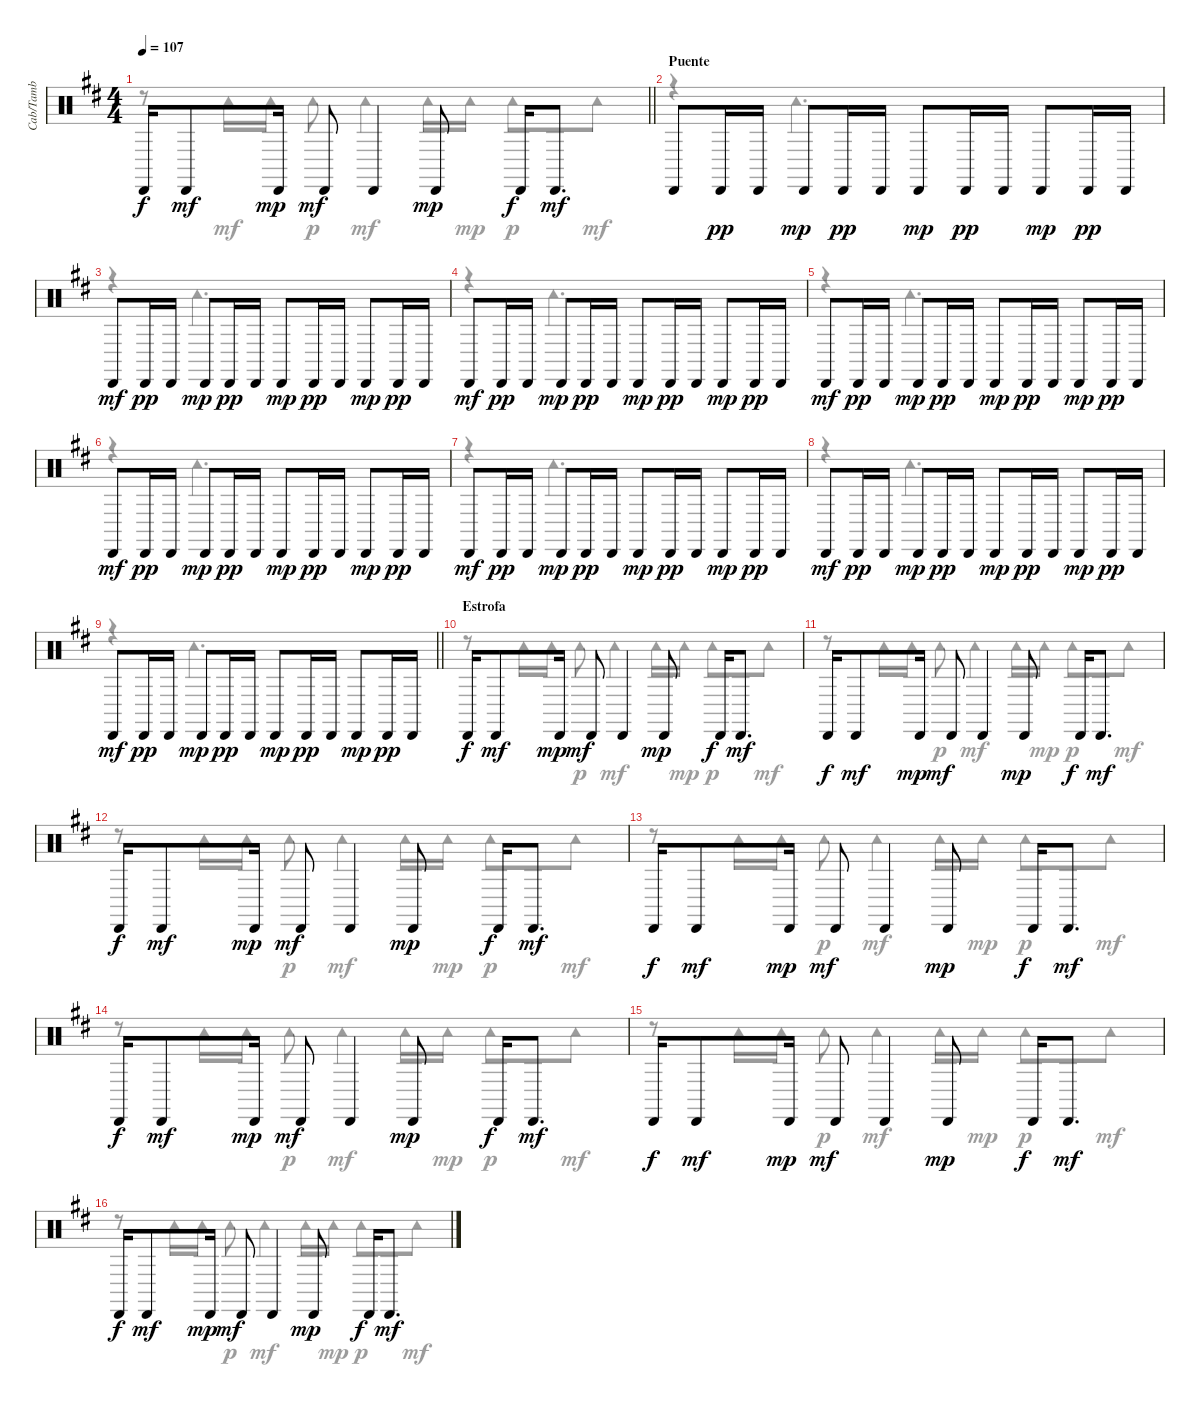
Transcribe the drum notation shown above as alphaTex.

\track ("Cab/Tamb" "Cab/Tamb") {instrument percussion}
\staff {score}
\articulation defaults
\voice
\ts (4 4)
\tempo 107
\clef neutral
\barLineRight lightlight
\ks d "Cabasa (hit)".16{dy f} "Cabasa (hit)".8{dy mf} "Cabasa (hit)".16{dy mp} "Cabasa (hit)".8{dy mf} "Cabasa (hit)".4 "Cabasa (hit)".8{dy mp} "Cabasa (hit)".16{dy f} "Cabasa (hit)".8{d dy mf}
|
\section ("" "Puente")
"Cabasa (hit)".8 "Cabasa (hit)".16{dy pp} "Cabasa (hit)".16 "Cabasa (hit)".8{dy mp} "Cabasa (hit)".16{dy pp} "Cabasa (hit)".16 "Cabasa (hit)".8{dy mp} "Cabasa (hit)".16{dy pp} "Cabasa (hit)".16 "Cabasa (hit)".8{dy mp} "Cabasa (hit)".16{dy pp} "Cabasa (hit)".16 |
"Cabasa (hit)".8{dy mf} "Cabasa (hit)".16{dy pp} "Cabasa (hit)".16 "Cabasa (hit)".8{dy mp} "Cabasa (hit)".16{dy pp} "Cabasa (hit)".16 "Cabasa (hit)".8{dy mp} "Cabasa (hit)".16{dy pp} "Cabasa (hit)".16 "Cabasa (hit)".8{dy mp} "Cabasa (hit)".16{dy pp} "Cabasa (hit)".16 |
"Cabasa (hit)".8{dy mf} "Cabasa (hit)".16{dy pp} "Cabasa (hit)".16 "Cabasa (hit)".8{dy mp} "Cabasa (hit)".16{dy pp} "Cabasa (hit)".16 "Cabasa (hit)".8{dy mp} "Cabasa (hit)".16{dy pp} "Cabasa (hit)".16 "Cabasa (hit)".8{dy mp} "Cabasa (hit)".16{dy pp} "Cabasa (hit)".16 |
"Cabasa (hit)".8{dy mf} "Cabasa (hit)".16{dy pp} "Cabasa (hit)".16 "Cabasa (hit)".8{dy mp} "Cabasa (hit)".16{dy pp} "Cabasa (hit)".16 "Cabasa (hit)".8{dy mp} "Cabasa (hit)".16{dy pp} "Cabasa (hit)".16 "Cabasa (hit)".8{dy mp} "Cabasa (hit)".16{dy pp} "Cabasa (hit)".16 |
"Cabasa (hit)".8{dy mf} "Cabasa (hit)".16{dy pp} "Cabasa (hit)".16 "Cabasa (hit)".8{dy mp} "Cabasa (hit)".16{dy pp} "Cabasa (hit)".16 "Cabasa (hit)".8{dy mp} "Cabasa (hit)".16{dy pp} "Cabasa (hit)".16 "Cabasa (hit)".8{dy mp} "Cabasa (hit)".16{dy pp} "Cabasa (hit)".16 |
"Cabasa (hit)".8{dy mf} "Cabasa (hit)".16{dy pp} "Cabasa (hit)".16 "Cabasa (hit)".8{dy mp} "Cabasa (hit)".16{dy pp} "Cabasa (hit)".16 "Cabasa (hit)".8{dy mp} "Cabasa (hit)".16{dy pp} "Cabasa (hit)".16 "Cabasa (hit)".8{dy mp} "Cabasa (hit)".16{dy pp} "Cabasa (hit)".16 |
"Cabasa (hit)".8{dy mf} "Cabasa (hit)".16{dy pp} "Cabasa (hit)".16 "Cabasa (hit)".8{dy mp} "Cabasa (hit)".16{dy pp} "Cabasa (hit)".16 "Cabasa (hit)".8{dy mp} "Cabasa (hit)".16{dy pp} "Cabasa (hit)".16 "Cabasa (hit)".8{dy mp} "Cabasa (hit)".16{dy pp} "Cabasa (hit)".16 |
\barLineRight lightlight "Cabasa (hit)".8{dy mf} "Cabasa (hit)".16{dy pp} "Cabasa (hit)".16 "Cabasa (hit)".8{dy mp} "Cabasa (hit)".16{dy pp} "Cabasa (hit)".16 "Cabasa (hit)".8{dy mp} "Cabasa (hit)".16{dy pp} "Cabasa (hit)".16 "Cabasa (hit)".8{dy mp} "Cabasa (hit)".16{dy pp} "Cabasa (hit)".16
|
\section ("" "Estrofa")
"Cabasa (hit)".16{dy f} "Cabasa (hit)".8{dy mf} "Cabasa (hit)".16{dy mp} "Cabasa (hit)".8{dy mf} "Cabasa (hit)".4 "Cabasa (hit)".8{dy mp} "Cabasa (hit)".16{dy f} "Cabasa (hit)".8{d dy mf} |
"Cabasa (hit)".16{dy f} "Cabasa (hit)".8{dy mf} "Cabasa (hit)".16{dy mp} "Cabasa (hit)".8{dy mf} "Cabasa (hit)".4 "Cabasa (hit)".8{dy mp} "Cabasa (hit)".16{dy f} "Cabasa (hit)".8{d dy mf} |
"Cabasa (hit)".16{dy f} "Cabasa (hit)".8{dy mf} "Cabasa (hit)".16{dy mp} "Cabasa (hit)".8{dy mf} "Cabasa (hit)".4 "Cabasa (hit)".8{dy mp} "Cabasa (hit)".16{dy f} "Cabasa (hit)".8{d dy mf} |
"Cabasa (hit)".16{dy f} "Cabasa (hit)".8{dy mf} "Cabasa (hit)".16{dy mp} "Cabasa (hit)".8{dy mf} "Cabasa (hit)".4 "Cabasa (hit)".8{dy mp} "Cabasa (hit)".16{dy f} "Cabasa (hit)".8{d dy mf} |
"Cabasa (hit)".16{dy f} "Cabasa (hit)".8{dy mf} "Cabasa (hit)".16{dy mp} "Cabasa (hit)".8{dy mf} "Cabasa (hit)".4 "Cabasa (hit)".8{dy mp} "Cabasa (hit)".16{dy f} "Cabasa (hit)".8{d dy mf} |
"Cabasa (hit)".16{dy f} "Cabasa (hit)".8{dy mf} "Cabasa (hit)".16{dy mp} "Cabasa (hit)".8{dy mf} "Cabasa (hit)".4 "Cabasa (hit)".8{dy mp} "Cabasa (hit)".16{dy f} "Cabasa (hit)".8{d dy mf} |
"Cabasa (hit)".16{dy f} "Cabasa (hit)".8{dy mf} "Cabasa (hit)".16{dy mp} "Cabasa (hit)".8{dy mf} "Cabasa (hit)".4 "Cabasa (hit)".8{dy mp} "Cabasa (hit)".16{dy f} "Cabasa (hit)".8{d dy mf}
\voice
\clef neutral
\ottava regular
\simile none
\barLineRight lightlight
\ks d
r.8{dy mf} "Tambourine (hit)".16 "Tambourine (hit)".16{dy mp} "Tambourine (hit)".8{dy p} "Tambourine (hit)".4{dy mf} "Tambourine (hit)".16 "Tambourine (hit)".16{dy mp} "Tambourine (hit)".8{dy p} "Tambourine (hit)".8{dy mf} |
r.4 "Tambourine (hit)".2{d} |
r.4 "Tambourine (hit)".2{d} |
r.4 "Tambourine (hit)".2{d} |
r.4 "Tambourine (hit)".2{d} |
r.4 "Tambourine (hit)".2{d} |
r.4 "Tambourine (hit)".2{d} |
r.4 "Tambourine (hit)".2{d} |
\barLineRight lightlight
r.4 "Tambourine (hit)".2{d} |
r.8 "Tambourine (hit)".16 "Tambourine (hit)".16{dy mp} "Tambourine (hit)".8{dy p} "Tambourine (hit)".4{dy mf} "Tambourine (hit)".16 "Tambourine (hit)".16{dy mp} "Tambourine (hit)".8{dy p} "Tambourine (hit)".8{dy mf} |
r.8 "Tambourine (hit)".16 "Tambourine (hit)".16{dy mp} "Tambourine (hit)".8{dy p} "Tambourine (hit)".4{dy mf} "Tambourine (hit)".16 "Tambourine (hit)".16{dy mp} "Tambourine (hit)".8{dy p} "Tambourine (hit)".8{dy mf} |
r.8 "Tambourine (hit)".16 "Tambourine (hit)".16{dy mp} "Tambourine (hit)".8{dy p} "Tambourine (hit)".4{dy mf} "Tambourine (hit)".16 "Tambourine (hit)".16{dy mp} "Tambourine (hit)".8{dy p} "Tambourine (hit)".8{dy mf} |
r.8 "Tambourine (hit)".16 "Tambourine (hit)".16{dy mp} "Tambourine (hit)".8{dy p} "Tambourine (hit)".4{dy mf} "Tambourine (hit)".16 "Tambourine (hit)".16{dy mp} "Tambourine (hit)".8{dy p} "Tambourine (hit)".8{dy mf} |
r.8 "Tambourine (hit)".16 "Tambourine (hit)".16{dy mp} "Tambourine (hit)".8{dy p} "Tambourine (hit)".4{dy mf} "Tambourine (hit)".16 "Tambourine (hit)".16{dy mp} "Tambourine (hit)".8{dy p} "Tambourine (hit)".8{dy mf} |
r.8 "Tambourine (hit)".16 "Tambourine (hit)".16{dy mp} "Tambourine (hit)".8{dy p} "Tambourine (hit)".4{dy mf} "Tambourine (hit)".16 "Tambourine (hit)".16{dy mp} "Tambourine (hit)".8{dy p} "Tambourine (hit)".8{dy mf} |
r.8 "Tambourine (hit)".16 "Tambourine (hit)".16{dy mp} "Tambourine (hit)".8{dy p} "Tambourine (hit)".4{dy mf} "Tambourine (hit)".16 "Tambourine (hit)".16{dy mp} "Tambourine (hit)".8{dy p} "Tambourine (hit)".8{dy mf}
